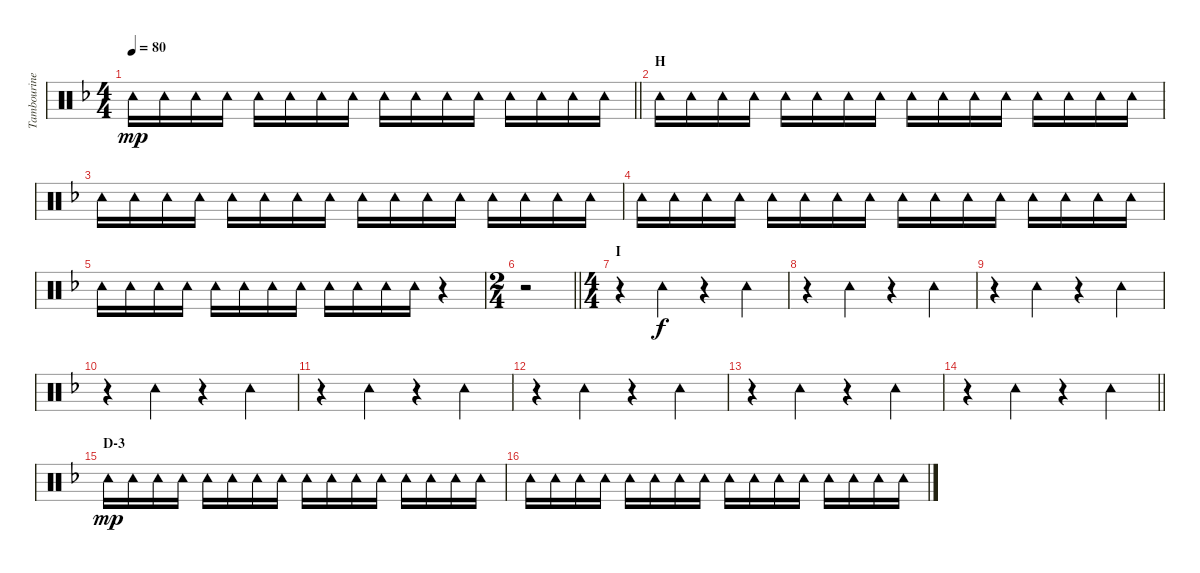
\track ("Tambourine" "Tambourine") {instrument percussion}
\staff {score}
\articulation defaults
\ts (4 4)
\tempo 80
\clef neutral
\barLineRight lightlight
\ks f "Tambourine (hit)".16{dy mp} "Tambourine (hit)".16 "Tambourine (hit)".16 "Tambourine (hit)".16 "Tambourine (hit)".16 "Tambourine (hit)".16 "Tambourine (hit)".16 "Tambourine (hit)".16 "Tambourine (hit)".16 "Tambourine (hit)".16 "Tambourine (hit)".16 "Tambourine (hit)".16 "Tambourine (hit)".16 "Tambourine (hit)".16 "Tambourine (hit)".16 "Tambourine (hit)".16
|
\section ("" "H")
"Tambourine (hit)".16 "Tambourine (hit)".16 "Tambourine (hit)".16 "Tambourine (hit)".16 "Tambourine (hit)".16 "Tambourine (hit)".16 "Tambourine (hit)".16 "Tambourine (hit)".16 "Tambourine (hit)".16 "Tambourine (hit)".16 "Tambourine (hit)".16 "Tambourine (hit)".16 "Tambourine (hit)".16 "Tambourine (hit)".16 "Tambourine (hit)".16 "Tambourine (hit)".16 |
"Tambourine (hit)".16 "Tambourine (hit)".16 "Tambourine (hit)".16 "Tambourine (hit)".16 "Tambourine (hit)".16 "Tambourine (hit)".16 "Tambourine (hit)".16 "Tambourine (hit)".16 "Tambourine (hit)".16 "Tambourine (hit)".16 "Tambourine (hit)".16 "Tambourine (hit)".16 "Tambourine (hit)".16 "Tambourine (hit)".16 "Tambourine (hit)".16 "Tambourine (hit)".16 |
"Tambourine (hit)".16 "Tambourine (hit)".16 "Tambourine (hit)".16 "Tambourine (hit)".16 "Tambourine (hit)".16 "Tambourine (hit)".16 "Tambourine (hit)".16 "Tambourine (hit)".16 "Tambourine (hit)".16 "Tambourine (hit)".16 "Tambourine (hit)".16 "Tambourine (hit)".16 "Tambourine (hit)".16 "Tambourine (hit)".16 "Tambourine (hit)".16 "Tambourine (hit)".16 |
"Tambourine (hit)".16 "Tambourine (hit)".16 "Tambourine (hit)".16 "Tambourine (hit)".16 "Tambourine (hit)".16 "Tambourine (hit)".16 "Tambourine (hit)".16 "Tambourine (hit)".16 "Tambourine (hit)".16 "Tambourine (hit)".16 "Tambourine (hit)".16 "Tambourine (hit)".16 r.4 |
\ts (2 4)
\barLineRight lightlight
r.2 |
\ts (4 4)
\section ("" "I")
r.4 "Tambourine (hit)".4{dy f} r.4 "Tambourine (hit)".4 |
r.4 "Tambourine (hit)".4 r.4 "Tambourine (hit)".4 |
r.4 "Tambourine (hit)".4 r.4 "Tambourine (hit)".4 |
r.4 "Tambourine (hit)".4 r.4 "Tambourine (hit)".4 |
r.4 "Tambourine (hit)".4 r.4 "Tambourine (hit)".4 |
r.4 "Tambourine (hit)".4 r.4 "Tambourine (hit)".4 |
r.4 "Tambourine (hit)".4 r.4 "Tambourine (hit)".4 |
\barLineRight lightlight
r.4 "Tambourine (hit)".4 r.4 "Tambourine (hit)".4 |
\section ("" "D-3")
"Tambourine (hit)".16{dy mp} "Tambourine (hit)".16 "Tambourine (hit)".16 "Tambourine (hit)".16 "Tambourine (hit)".16 "Tambourine (hit)".16 "Tambourine (hit)".16 "Tambourine (hit)".16 "Tambourine (hit)".16 "Tambourine (hit)".16 "Tambourine (hit)".16 "Tambourine (hit)".16 "Tambourine (hit)".16 "Tambourine (hit)".16 "Tambourine (hit)".16 "Tambourine (hit)".16 |
"Tambourine (hit)".16 "Tambourine (hit)".16 "Tambourine (hit)".16 "Tambourine (hit)".16 "Tambourine (hit)".16 "Tambourine (hit)".16 "Tambourine (hit)".16 "Tambourine (hit)".16 "Tambourine (hit)".16 "Tambourine (hit)".16 "Tambourine (hit)".16 "Tambourine (hit)".16 "Tambourine (hit)".16 "Tambourine (hit)".16 "Tambourine (hit)".16 "Tambourine (hit)".16
